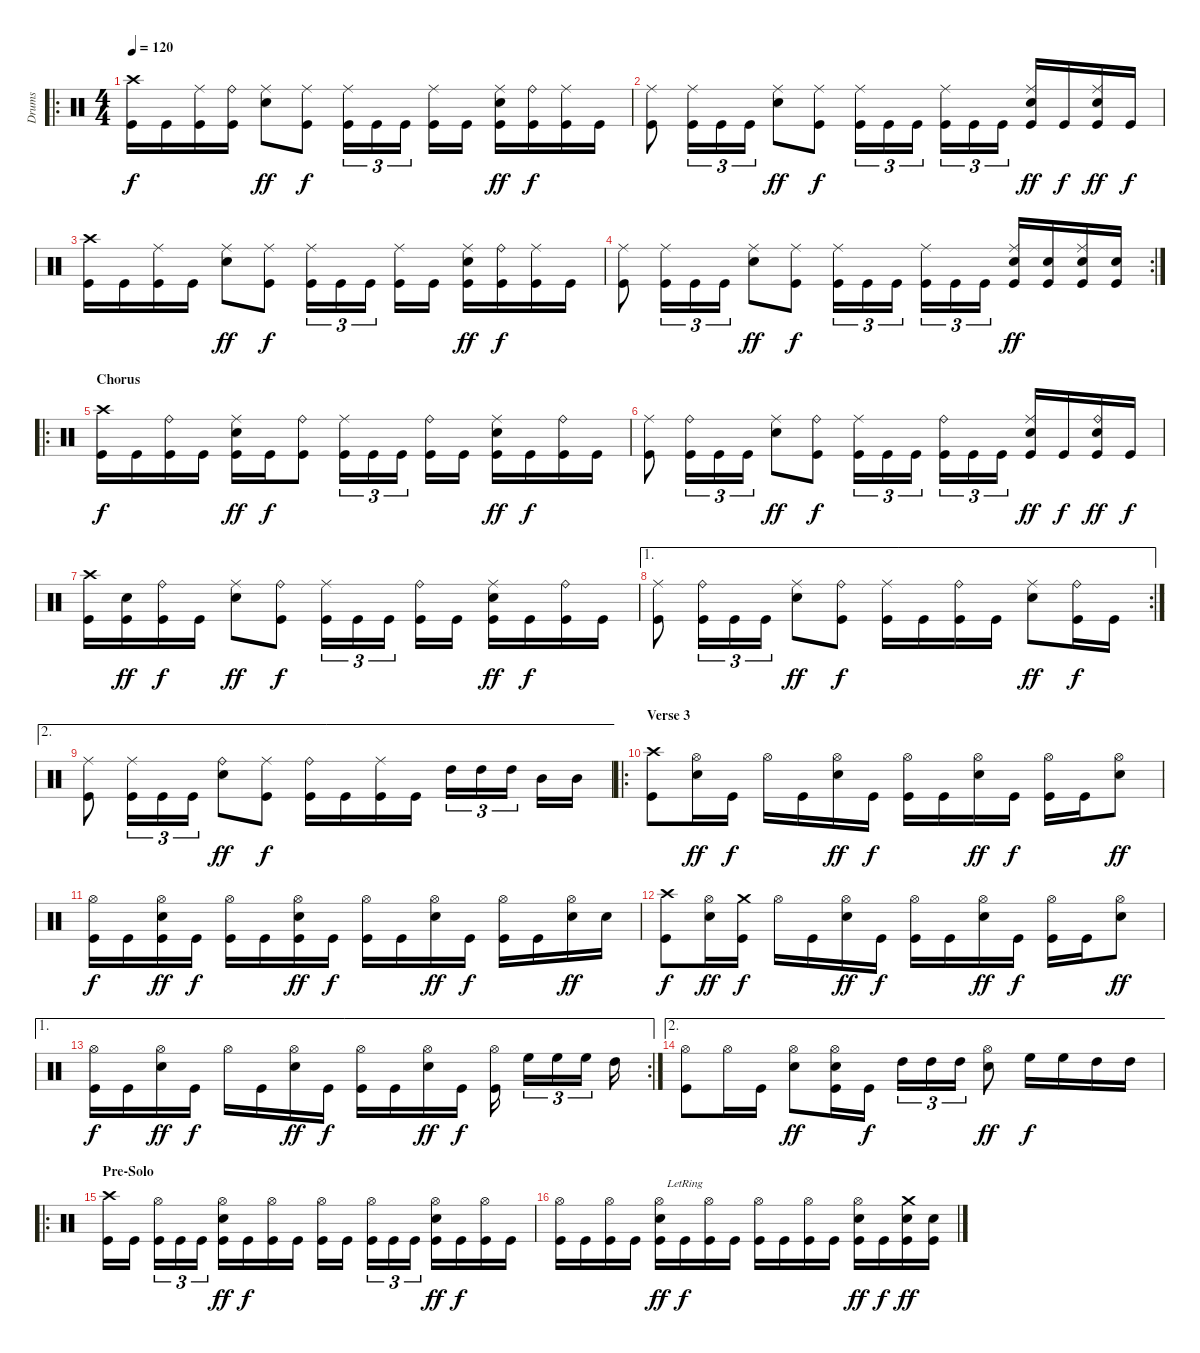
\track ("Drums" "Drums") {instrument percussion}
\staff {score}
\articulation defaults
\ro
\ts (4 4)
\tempo 120
\clef neutral
\ks c
("Crash high (hit)" "Kick (hit)").16{dy f} "Kick (hit)".16 ("Ride (middle)" "Kick (hit)").16 ("Ride (bell)" "Kick (hit)").16 ("Ride (middle)" "Electric Snare (hit)").8{dy ff} ("Ride (middle)" "Kick (hit)").8{dy f} ("Ride (middle)" "Kick (hit)").16{tu (3 2)} "Kick (hit)".16{tu (3 2)} "Kick (hit)".16{tu (3 2)} ("Ride (middle)" "Kick (hit)").16 "Kick (hit)".16 ("Ride (middle)" "Electric Snare (hit)" "Kick (hit)").16{dy ff} ("Ride (bell)" "Kick (hit)").16{dy f} ("Ride (middle)" "Kick (hit)").16 "Kick (hit)".16 |
("Ride (middle)" "Kick (hit)").8 ("Ride (middle)" "Kick (hit)").16{tu (3 2)} "Kick (hit)".16{tu (3 2)} "Kick (hit)".16{tu (3 2)} ("Ride (middle)" "Electric Snare (hit)").8{dy ff} ("Ride (middle)" "Kick (hit)").8{dy f} ("Ride (middle)" "Kick (hit)").16{tu (3 2)} "Kick (hit)".16{tu (3 2)} "Kick (hit)".16{tu (3 2)} ("Ride (middle)" "Kick (hit)").16{tu (3 2)} "Kick (hit)".16{tu (3 2)} "Kick (hit)".16{tu (3 2)} ("Ride (middle)" "Electric Snare (hit)" "Kick (hit)").16{dy ff} "Kick (hit)".16{dy f} ("Ride (middle)" "Electric Snare (hit)" "Kick (hit)").16{dy ff} "Kick (hit)".16{dy f} |
("Crash high (hit)" "Kick (hit)").16 "Kick (hit)".16 ("Ride (middle)" "Kick (hit)").16 "Kick (hit)".16 ("Ride (middle)" "Electric Snare (hit)").8{dy ff} ("Ride (middle)" "Kick (hit)").8{dy f} ("Ride (middle)" "Kick (hit)").16{tu (3 2)} "Kick (hit)".16{tu (3 2)} "Kick (hit)".16{tu (3 2)} ("Ride (middle)" "Kick (hit)").16 "Kick (hit)".16 ("Ride (middle)" "Electric Snare (hit)" "Kick (hit)").16{dy ff} ("Ride (bell)" "Kick (hit)").16{dy f} ("Ride (middle)" "Kick (hit)").16 "Kick (hit)".16 |
\rc 2
("Ride (middle)" "Kick (hit)").8 ("Ride (middle)" "Kick (hit)").16{tu (3 2)} "Kick (hit)".16{tu (3 2)} "Kick (hit)".16{tu (3 2)} ("Ride (middle)" "Electric Snare (hit)").8{dy ff} ("Ride (middle)" "Kick (hit)").8{dy f} ("Ride (middle)" "Kick (hit)").16{tu (3 2)} "Kick (hit)".16{tu (3 2)} "Kick (hit)".16{tu (3 2)} ("Ride (middle)" "Kick (hit)").16{tu (3 2)} "Kick (hit)".16{tu (3 2)} "Kick (hit)".16{tu (3 2)} ("Ride (middle)" "Electric Snare (hit)" "Kick (hit)").16{dy ff} ("Electric Snare (hit)" "Kick (hit)").16 ("Ride (middle)" "Electric Snare (hit)" "Kick (hit)").16 ("Electric Snare (hit)" "Kick (hit)").16 |
\ro
\section ("" "Chorus")
("Crash high (hit)" "Kick (hit)").16{dy f} "Kick (hit)".16 ("Ride (bell)" "Kick (hit)").16 "Kick (hit)".16 ("Ride (middle)" "Electric Snare (hit)" "Kick (hit)").16{dy ff} "Kick (hit)".16{dy f} ("Ride (bell)" "Kick (hit)").8 ("Ride (middle)" "Kick (hit)").16{tu (3 2)} "Kick (hit)".16{tu (3 2)} "Kick (hit)".16{tu (3 2)} ("Ride (bell)" "Kick (hit)").16 "Kick (hit)".16 ("Ride (middle)" "Electric Snare (hit)" "Kick (hit)").16{dy ff} "Kick (hit)".16{dy f} ("Ride (bell)" "Kick (hit)").16 "Kick (hit)".16 |
("Ride (middle)" "Kick (hit)").8 ("Ride (bell)" "Kick (hit)").16{tu (3 2)} "Kick (hit)".16{tu (3 2)} "Kick (hit)".16{tu (3 2)} ("Ride (middle)" "Electric Snare (hit)").8{dy ff} ("Ride (bell)" "Kick (hit)").8{dy f} ("Ride (middle)" "Kick (hit)").16{tu (3 2)} "Kick (hit)".16{tu (3 2)} "Kick (hit)".16{tu (3 2)} ("Ride (bell)" "Kick (hit)").16{tu (3 2)} "Kick (hit)".16{tu (3 2)} "Kick (hit)".16{tu (3 2)} ("Ride (middle)" "Electric Snare (hit)" "Kick (hit)").16{dy ff} "Kick (hit)".16{dy f} ("Ride (bell)" "Electric Snare (hit)" "Kick (hit)").16{dy ff} "Kick (hit)".16{dy f} |
("Crash high (hit)" "Kick (hit)").16 ("Electric Snare (hit)" "Kick (hit)").16{dy ff} ("Ride (bell)" "Kick (hit)").16{dy f} "Kick (hit)".16 ("Ride (middle)" "Electric Snare (hit)").8{dy ff} ("Ride (bell)" "Kick (hit)").8{dy f} ("Ride (middle)" "Kick (hit)").16{tu (3 2)} "Kick (hit)".16{tu (3 2)} "Kick (hit)".16{tu (3 2)} ("Ride (bell)" "Kick (hit)").16 "Kick (hit)".16 ("Ride (middle)" "Electric Snare (hit)" "Kick (hit)").16{dy ff} "Kick (hit)".16{dy f} ("Ride (bell)" "Kick (hit)").16 "Kick (hit)".16 |
\ae 1
\rc 2
("Ride (middle)" "Kick (hit)").8 ("Ride (bell)" "Kick (hit)").16{tu (3 2)} "Kick (hit)".16{tu (3 2)} "Kick (hit)".16{tu (3 2)} ("Ride (middle)" "Electric Snare (hit)").8{dy ff} ("Ride (bell)" "Kick (hit)").8{dy f} ("Ride (middle)" "Kick (hit)").16 "Kick (hit)".16 ("Ride (bell)" "Kick (hit)").16 "Kick (hit)".16 ("Ride (middle)" "Electric Snare (hit)").8{dy ff} ("Ride (bell)" "Kick (hit)").16{dy f} "Kick (hit)".16 |
\ae 2
("Ride (middle)" "Kick (hit)").8 ("Ride (middle)" "Kick (hit)").16{tu (3 2)} "Kick (hit)".16{tu (3 2)} "Kick (hit)".16{tu (3 2)} ("Ride (bell)" "Electric Snare (hit)").8{dy ff} ("Ride (middle)" "Kick (hit)").8{dy f} ("Ride (bell)" "Kick (hit)").16 "Kick (hit)".16 ("Ride (middle)" "Kick (hit)").16 "Kick (hit)".16 "High Tom (hit)".16{tu (3 2)} "High Tom (hit)".16{tu (3 2)} "High Tom (hit)".16{tu (3 2)} "Mid Tom (hit)".16 "Mid Tom (hit)".16 |
\ro
\section ("" "Verse 3")
("Crash high (hit)" "Kick (hit)").8 ("Hi-Hat (open)" "Electric Snare (hit)").16{dy ff} "Kick (hit)".16{dy f} "Hi-Hat (open)".16 "Kick (hit)".16 ("Hi-Hat (open)" "Electric Snare (hit)").16{dy ff} "Kick (hit)".16{dy f} ("Hi-Hat (open)" "Kick (hit)").16 "Kick (hit)".16 ("Hi-Hat (open)" "Electric Snare (hit)").16{dy ff} "Kick (hit)".16{dy f} ("Hi-Hat (open)" "Kick (hit)").16 "Kick (hit)".16 ("Hi-Hat (open)" "Electric Snare (hit)").8{dy ff} |
("Hi-Hat (open)" "Kick (hit)").16{dy f} "Kick (hit)".16 ("Hi-Hat (open)" "Electric Snare (hit)" "Kick (hit)").16{dy ff} "Kick (hit)".16{dy f} ("Hi-Hat (open)" "Kick (hit)").16 "Kick (hit)".16 ("Hi-Hat (open)" "Electric Snare (hit)" "Kick (hit)").16{dy ff} "Kick (hit)".16{dy f} ("Hi-Hat (open)" "Kick (hit)").16 "Kick (hit)".16 ("Hi-Hat (open)" "Electric Snare (hit)").16{dy ff} "Kick (hit)".16{dy f} ("Hi-Hat (open)" "Kick (hit)").16 "Kick (hit)".16 ("Hi-Hat (open)" "Electric Snare (hit)").16{dy ff} "Electric Snare (hit)".16 |
("Crash high (hit)" "Kick (hit)").8{dy f} ("Hi-Hat (open)" "Electric Snare (hit)").16{dy ff} ("Crash medium (hit)" "Kick (hit)").16{dy f} "Hi-Hat (open)".16 "Kick (hit)".16 ("Hi-Hat (open)" "Electric Snare (hit)").16{dy ff} "Kick (hit)".16{dy f} ("Hi-Hat (open)" "Kick (hit)").16 "Kick (hit)".16 ("Hi-Hat (open)" "Electric Snare (hit)").16{dy ff} "Kick (hit)".16{dy f} ("Hi-Hat (open)" "Kick (hit)").16 "Kick (hit)".16 ("Hi-Hat (open)" "Electric Snare (hit)").8{dy ff} |
\ae 1
\rc 2
("Hi-Hat (open)" "Kick (hit)").16{dy f} "Kick (hit)".16 ("Hi-Hat (open)" "Electric Snare (hit)").16{dy ff} "Kick (hit)".16{dy f} "Hi-Hat (open)".16 "Kick (hit)".16 ("Hi-Hat (open)" "Electric Snare (hit)").16{dy ff} "Kick (hit)".16{dy f} ("Hi-Hat (open)" "Kick (hit)").16 "Kick (hit)".16 ("Hi-Hat (open)" "Electric Snare (hit)").16{dy ff} "Kick (hit)".16{dy f} ("Hi-Hat (open)" "Kick (hit)").16 "High Floor Tom (hit)".16{tu (3 2)} "High Floor Tom (hit)".16{tu (3 2)} "High Floor Tom (hit)".16{tu (3 2)} "High Tom (hit)".16 |
\ae 2
("Hi-Hat (open)" "Kick (hit)").8 "Hi-Hat (open)".16 "Kick (hit)".16 ("Hi-Hat (open)" "Electric Snare (hit)").8{dy ff} ("Hi-Hat (open)" "Electric Snare (hit)" "Kick (hit)").16 "Kick (hit)".16{dy f} "High Tom (hit)".16{tu (3 2)} "High Tom (hit)".16{tu (3 2)} "High Tom (hit)".16{tu (3 2)} ("Hi-Hat (open)" "Electric Snare (hit)").8{dy ff} "High Floor Tom (hit)".16{dy f} "High Floor Tom (hit)".16 "High Tom (hit)".16 "High Tom (hit)".16 |
\ro
\section ("" "Pre-Solo")
("Crash high (hit)" "Kick (hit)").16 "Kick (hit)".16 ("Hi-Hat (open)" "Kick (hit)").16{tu (3 2)} "Kick (hit)".16{tu (3 2)} "Kick (hit)".16{tu (3 2)} ("Hi-Hat (open)" "Electric Snare (hit)" "Kick (hit)").16{dy ff} "Kick (hit)".16{dy f} ("Hi-Hat (open)" "Kick (hit)").16 "Kick (hit)".16 ("Hi-Hat (open)" "Kick (hit)").16 "Kick (hit)".16 ("Hi-Hat (open)" "Kick (hit)").16{tu (3 2)} "Kick (hit)".16{tu (3 2)} "Kick (hit)".16{tu (3 2)} ("Hi-Hat (open)" "Electric Snare (hit)" "Kick (hit)").16{dy ff} "Kick (hit)".16{dy f} ("Hi-Hat (open)" "Kick (hit)").16 "Kick (hit)".16 |
("Hi-Hat (open)" "Kick (hit)").16 "Kick (hit)".16 ("Hi-Hat (open)" "Kick (hit)").16 "Kick (hit)".16 ("Hi-Hat (open)" "Electric Snare (hit)" "Kick (hit)").16{dy ff} "Kick (hit)"{lr}.16{dy f} ("Hi-Hat (open)" "Kick (hit)").16 "Kick (hit)".16 ("Hi-Hat (open)" "Kick (hit)").16 "Kick (hit)".16 ("Hi-Hat (open)" "Kick (hit)").16 "Kick (hit)".16 ("Hi-Hat (open)" "Electric Snare (hit)" "Kick (hit)").16{dy ff} "Kick (hit)".16{dy f} ("Crash medium (hit)" "Electric Snare (hit)" "Kick (hit)").16{dy ff} ("Electric Snare (hit)" "Kick (hit)").16
